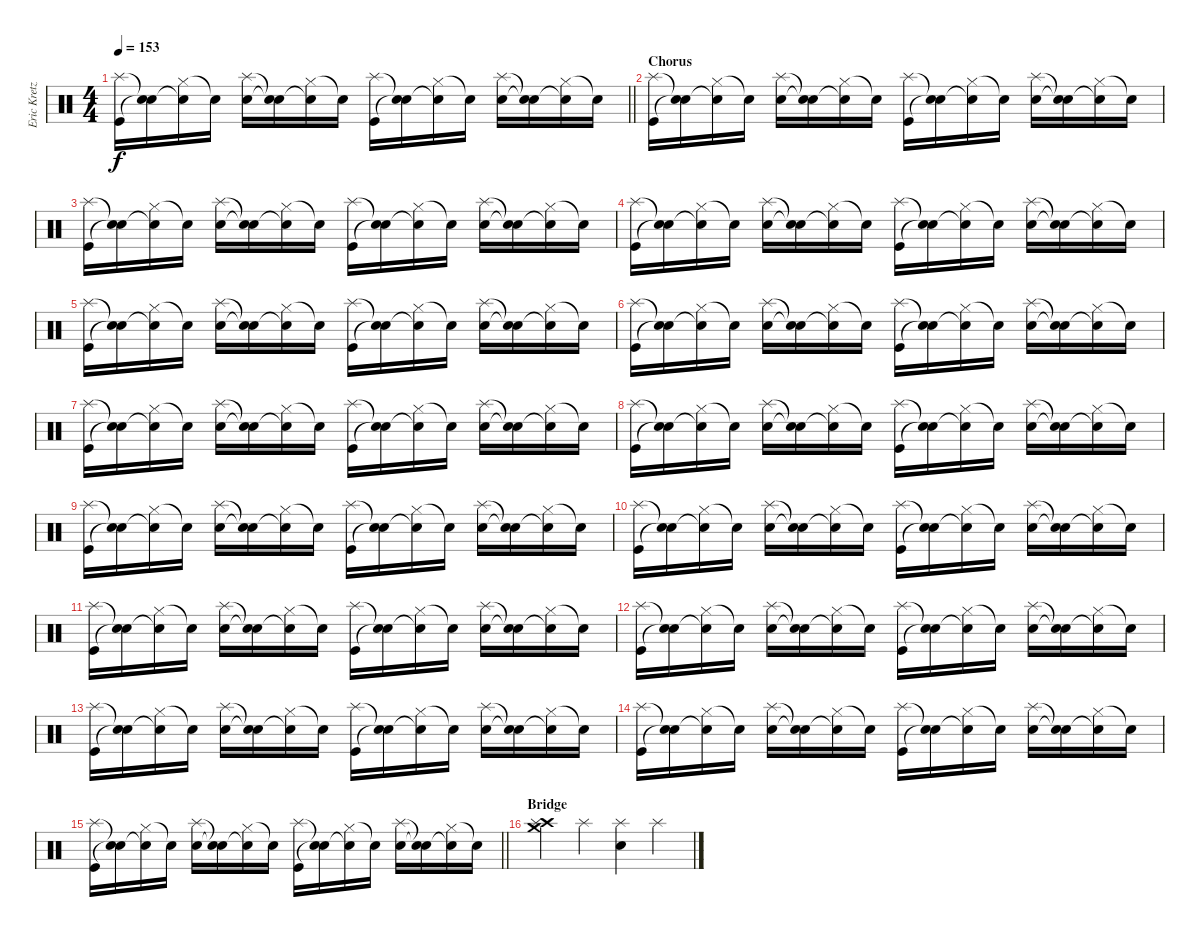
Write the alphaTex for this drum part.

\track ("Eric Kretz - Drums" "Eric Kretz") {instrument percussion}
\staff {score}
\articulation defaults
\ts (4 4)
\tempo 153
\clef neutral
\barLineRight lightlight
\ks c
("Kick (hit)" "Splash (hit)").16{dy f} ("Snare (hit)"{t} "Snare (hit)"{t}).16 ("Hi-Hat (closed)" "Snare (hit)"{t}).16 "Snare (hit)"{t}.16 ("Snare (hit) 2" "Splash (hit)").16 ("Snare (hit)"{t} "Snare (hit)"{t}).16 ("Hi-Hat (closed)" "Snare (hit)"{t}).16 "Snare (hit)"{t}.16 ("Kick (hit)" "Splash (hit)").16 ("Snare (hit)"{t} "Snare (hit)"{t}).16 ("Hi-Hat (closed)" "Snare (hit)"{t}).16 "Snare (hit)"{t}.16 ("Snare (hit) 2" "Splash (hit)").16 ("Snare (hit)"{t} "Snare (hit)"{t}).16 ("Hi-Hat (closed)" "Snare (hit)"{t}).16 "Snare (hit)"{t}.16 |
\section ("" "Chorus")
("Kick (hit)" "Splash (hit)").16 ("Snare (hit)"{t} "Snare (hit)"{t}).16 ("Hi-Hat (closed)" "Snare (hit)"{t}).16 "Snare (hit)"{t}.16 ("Snare (hit) 2" "Splash (hit)").16 ("Snare (hit)"{t} "Snare (hit)"{t}).16 ("Hi-Hat (closed)" "Snare (hit)"{t}).16 "Snare (hit)"{t}.16 ("Kick (hit)" "Splash (hit)").16 ("Snare (hit)"{t} "Snare (hit)"{t}).16 ("Hi-Hat (closed)" "Snare (hit)"{t}).16 "Snare (hit)"{t}.16 ("Snare (hit) 2" "Splash (hit)").16 ("Snare (hit)"{t} "Snare (hit)"{t}).16 ("Hi-Hat (closed)" "Snare (hit)"{t}).16 "Snare (hit)"{t}.16 |
("Kick (hit)" "Splash (hit)").16 ("Snare (hit)"{t} "Snare (hit)"{t}).16 ("Hi-Hat (closed)" "Snare (hit)"{t}).16 "Snare (hit)"{t}.16 ("Snare (hit) 2" "Splash (hit)").16 ("Snare (hit)"{t} "Snare (hit)"{t}).16 ("Hi-Hat (closed)" "Snare (hit)"{t}).16 "Snare (hit)"{t}.16 ("Kick (hit)" "Splash (hit)").16 ("Snare (hit)"{t} "Snare (hit)"{t}).16 ("Hi-Hat (closed)" "Snare (hit)"{t}).16 "Snare (hit)"{t}.16 ("Snare (hit) 2" "Splash (hit)").16 ("Snare (hit)"{t} "Snare (hit)"{t}).16 ("Hi-Hat (closed)" "Snare (hit)"{t}).16 "Snare (hit)"{t}.16 |
("Kick (hit)" "Splash (hit)").16 ("Snare (hit)"{t} "Snare (hit)"{t}).16 ("Hi-Hat (closed)" "Snare (hit)"{t}).16 "Snare (hit)"{t}.16 ("Snare (hit) 2" "Splash (hit)").16 ("Snare (hit)"{t} "Snare (hit)"{t}).16 ("Hi-Hat (closed)" "Snare (hit)"{t}).16 "Snare (hit)"{t}.16 ("Kick (hit)" "Splash (hit)").16 ("Snare (hit)"{t} "Snare (hit)"{t}).16 ("Hi-Hat (closed)" "Snare (hit)"{t}).16 "Snare (hit)"{t}.16 ("Snare (hit) 2" "Splash (hit)").16 ("Snare (hit)"{t} "Snare (hit)"{t}).16 ("Hi-Hat (closed)" "Snare (hit)"{t}).16 "Snare (hit)"{t}.16 |
("Kick (hit)" "Splash (hit)").16 ("Snare (hit)"{t} "Snare (hit)"{t}).16 ("Hi-Hat (closed)" "Snare (hit)"{t}).16 "Snare (hit)"{t}.16 ("Snare (hit) 2" "Splash (hit)").16 ("Snare (hit)"{t} "Snare (hit)"{t}).16 ("Hi-Hat (closed)" "Snare (hit)"{t}).16 "Snare (hit)"{t}.16 ("Kick (hit)" "Splash (hit)").16 ("Snare (hit)"{t} "Snare (hit)"{t}).16 ("Hi-Hat (closed)" "Snare (hit)"{t}).16 "Snare (hit)"{t}.16 ("Snare (hit) 2" "Splash (hit)").16 ("Snare (hit)"{t} "Snare (hit)"{t}).16 ("Hi-Hat (closed)" "Snare (hit)"{t}).16 "Snare (hit)"{t}.16 |
("Kick (hit)" "Splash (hit)").16 ("Snare (hit)"{t} "Snare (hit)"{t}).16 ("Hi-Hat (closed)" "Snare (hit)"{t}).16 "Snare (hit)"{t}.16 ("Snare (hit) 2" "Splash (hit)").16 ("Snare (hit)"{t} "Snare (hit)"{t}).16 ("Hi-Hat (closed)" "Snare (hit)"{t}).16 "Snare (hit)"{t}.16 ("Kick (hit)" "Splash (hit)").16 ("Snare (hit)"{t} "Snare (hit)"{t}).16 ("Hi-Hat (closed)" "Snare (hit)"{t}).16 "Snare (hit)"{t}.16 ("Snare (hit) 2" "Splash (hit)").16 ("Snare (hit)"{t} "Snare (hit)"{t}).16 ("Hi-Hat (closed)" "Snare (hit)"{t}).16 "Snare (hit)"{t}.16 |
("Kick (hit)" "Splash (hit)").16 ("Snare (hit)"{t} "Snare (hit)"{t}).16 ("Hi-Hat (closed)" "Snare (hit)"{t}).16 "Snare (hit)"{t}.16 ("Snare (hit) 2" "Splash (hit)").16 ("Snare (hit)"{t} "Snare (hit)"{t}).16 ("Hi-Hat (closed)" "Snare (hit)"{t}).16 "Snare (hit)"{t}.16 ("Kick (hit)" "Splash (hit)").16 ("Snare (hit)"{t} "Snare (hit)"{t}).16 ("Hi-Hat (closed)" "Snare (hit)"{t}).16 "Snare (hit)"{t}.16 ("Snare (hit) 2" "Splash (hit)").16 ("Snare (hit)"{t} "Snare (hit)"{t}).16 ("Hi-Hat (closed)" "Snare (hit)"{t}).16 "Snare (hit)"{t}.16 |
("Kick (hit)" "Splash (hit)").16 ("Snare (hit)"{t} "Snare (hit)"{t}).16 ("Hi-Hat (closed)" "Snare (hit)"{t}).16 "Snare (hit)"{t}.16 ("Snare (hit) 2" "Splash (hit)").16 ("Snare (hit)"{t} "Snare (hit)"{t}).16 ("Hi-Hat (closed)" "Snare (hit)"{t}).16 "Snare (hit)"{t}.16 ("Kick (hit)" "Splash (hit)").16 ("Snare (hit)"{t} "Snare (hit)"{t}).16 ("Hi-Hat (closed)" "Snare (hit)"{t}).16 "Snare (hit)"{t}.16 ("Snare (hit) 2" "Splash (hit)").16 ("Snare (hit)"{t} "Snare (hit)"{t}).16 ("Hi-Hat (closed)" "Snare (hit)"{t}).16 "Snare (hit)"{t}.16 |
("Kick (hit)" "Splash (hit)").16 ("Snare (hit)"{t} "Snare (hit)"{t}).16 ("Hi-Hat (closed)" "Snare (hit)"{t}).16 "Snare (hit)"{t}.16 ("Snare (hit) 2" "Splash (hit)").16 ("Snare (hit)"{t} "Snare (hit)"{t}).16 ("Hi-Hat (closed)" "Snare (hit)"{t}).16 "Snare (hit)"{t}.16 ("Kick (hit)" "Splash (hit)").16 ("Snare (hit)"{t} "Snare (hit)"{t}).16 ("Hi-Hat (closed)" "Snare (hit)"{t}).16 "Snare (hit)"{t}.16 ("Snare (hit) 2" "Splash (hit)").16 ("Snare (hit)"{t} "Snare (hit)"{t}).16 ("Hi-Hat (closed)" "Snare (hit)"{t}).16 "Snare (hit)"{t}.16 |
("Kick (hit)" "Splash (hit)").16 ("Snare (hit)"{t} "Snare (hit)"{t}).16 ("Hi-Hat (closed)" "Snare (hit)"{t}).16 "Snare (hit)"{t}.16 ("Snare (hit) 2" "Splash (hit)").16 ("Snare (hit)"{t} "Snare (hit)"{t}).16 ("Hi-Hat (closed)" "Snare (hit)"{t}).16 "Snare (hit)"{t}.16 ("Kick (hit)" "Splash (hit)").16 ("Snare (hit)"{t} "Snare (hit)"{t}).16 ("Hi-Hat (closed)" "Snare (hit)"{t}).16 "Snare (hit)"{t}.16 ("Snare (hit) 2" "Splash (hit)").16 ("Snare (hit)"{t} "Snare (hit)"{t}).16 ("Hi-Hat (closed)" "Snare (hit)"{t}).16 "Snare (hit)"{t}.16 |
("Kick (hit)" "Splash (hit)").16 ("Snare (hit)"{t} "Snare (hit)"{t}).16 ("Hi-Hat (closed)" "Snare (hit)"{t}).16 "Snare (hit)"{t}.16 ("Snare (hit) 2" "Splash (hit)").16 ("Snare (hit)"{t} "Snare (hit)"{t}).16 ("Hi-Hat (closed)" "Snare (hit)"{t}).16 "Snare (hit)"{t}.16 ("Kick (hit)" "Splash (hit)").16 ("Snare (hit)"{t} "Snare (hit)"{t}).16 ("Hi-Hat (closed)" "Snare (hit)"{t}).16 "Snare (hit)"{t}.16 ("Snare (hit) 2" "Splash (hit)").16 ("Snare (hit)"{t} "Snare (hit)"{t}).16 ("Hi-Hat (closed)" "Snare (hit)"{t}).16 "Snare (hit)"{t}.16 |
("Kick (hit)" "Splash (hit)").16 ("Snare (hit)"{t} "Snare (hit)"{t}).16 ("Hi-Hat (closed)" "Snare (hit)"{t}).16 "Snare (hit)"{t}.16 ("Snare (hit) 2" "Splash (hit)").16 ("Snare (hit)"{t} "Snare (hit)"{t}).16 ("Hi-Hat (closed)" "Snare (hit)"{t}).16 "Snare (hit)"{t}.16 ("Kick (hit)" "Splash (hit)").16 ("Snare (hit)"{t} "Snare (hit)"{t}).16 ("Hi-Hat (closed)" "Snare (hit)"{t}).16 "Snare (hit)"{t}.16 ("Snare (hit) 2" "Splash (hit)").16 ("Snare (hit)"{t} "Snare (hit)"{t}).16 ("Hi-Hat (closed)" "Snare (hit)"{t}).16 "Snare (hit)"{t}.16 |
("Kick (hit)" "Splash (hit)").16 ("Snare (hit)"{t} "Snare (hit)"{t}).16 ("Hi-Hat (closed)" "Snare (hit)"{t}).16 "Snare (hit)"{t}.16 ("Snare (hit) 2" "Splash (hit)").16 ("Snare (hit)"{t} "Snare (hit)"{t}).16 ("Hi-Hat (closed)" "Snare (hit)"{t}).16 "Snare (hit)"{t}.16 ("Kick (hit)" "Splash (hit)").16 ("Snare (hit)"{t} "Snare (hit)"{t}).16 ("Hi-Hat (closed)" "Snare (hit)"{t}).16 "Snare (hit)"{t}.16 ("Snare (hit) 2" "Splash (hit)").16 ("Snare (hit)"{t} "Snare (hit)"{t}).16 ("Hi-Hat (closed)" "Snare (hit)"{t}).16 "Snare (hit)"{t}.16 |
("Kick (hit)" "Splash (hit)").16 ("Snare (hit)"{t} "Snare (hit)"{t}).16 ("Hi-Hat (closed)" "Snare (hit)"{t}).16 "Snare (hit)"{t}.16 ("Snare (hit) 2" "Splash (hit)").16 ("Snare (hit)"{t} "Snare (hit)"{t}).16 ("Hi-Hat (closed)" "Snare (hit)"{t}).16 "Snare (hit)"{t}.16 ("Kick (hit)" "Splash (hit)").16 ("Snare (hit)"{t} "Snare (hit)"{t}).16 ("Hi-Hat (closed)" "Snare (hit)"{t}).16 "Snare (hit)"{t}.16 ("Snare (hit) 2" "Splash (hit)").16 ("Snare (hit)"{t} "Snare (hit)"{t}).16 ("Hi-Hat (closed)" "Snare (hit)"{t}).16 "Snare (hit)"{t}.16 |
\barLineRight lightlight
("Kick (hit)" "Splash (hit)").16 ("Snare (hit)"{t} "Snare (hit)"{t}).16 ("Hi-Hat (closed)" "Snare (hit)"{t}).16 "Snare (hit)"{t}.16 ("Snare (hit) 2" "Splash (hit)").16 ("Snare (hit)"{t} "Snare (hit)"{t}).16 ("Hi-Hat (closed)" "Snare (hit)"{t}).16 "Snare (hit)"{t}.16 ("Kick (hit)" "Splash (hit)").16 ("Snare (hit)"{t} "Snare (hit)"{t}).16 ("Hi-Hat (closed)" "Snare (hit)"{t}).16 "Snare (hit)"{t}.16 ("Snare (hit) 2" "Splash (hit)").16 ("Snare (hit)"{t} "Snare (hit)"{t}).16 ("Hi-Hat (closed)" "Snare (hit)"{t}).16 "Snare (hit)"{t}.16 |
\section ("" "Bridge")
("Crash high (hit)" "Crash medium (hit)" "Splash (hit)").4 "Splash (hit)".4 ("Splash (hit)" "Snare (hit) 2").4 "Splash (hit)".4
